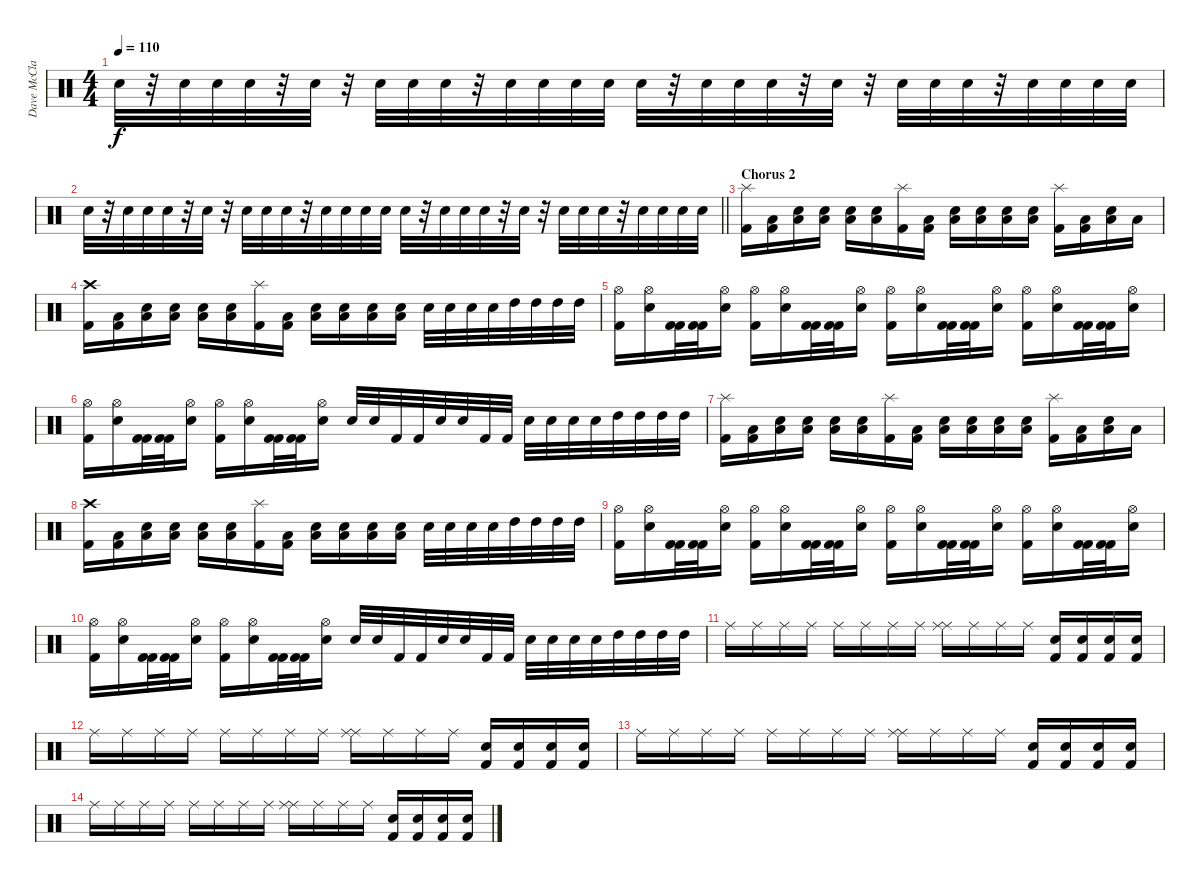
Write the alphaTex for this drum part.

\track ("Dave McClain" "Dave McCla") {instrument percussion}
\staff {score}
\articulation defaults
\ts (4 4)
\tempo 110
\clef neutral
\ks c "Electric Snare (hit)".32{dy f}
r.32 "Electric Snare (hit)".32 "Electric Snare (hit)".32 "Electric Snare (hit)".32 r.32 "Electric Snare (hit)".32 r.32 "Electric Snare (hit)".32 "Electric Snare (hit)".32 "Electric Snare (hit)".32 r.32 "Electric Snare (hit)".32 "Electric Snare (hit)".32 "Electric Snare (hit)".32 "Electric Snare (hit)".32 "Electric Snare (hit)".32 r.32 "Electric Snare (hit)".32 "Electric Snare (hit)".32 "Electric Snare (hit)".32 r.32 "Electric Snare (hit)".32 r.32 "Electric Snare (hit)".32 "Electric Snare (hit)".32 "Electric Snare (hit)".32 r.32 "Electric Snare (hit)".32 "Electric Snare (hit)".32 "Electric Snare (hit)".32 "Electric Snare (hit)".32 |
\barLineRight lightlight "Electric Snare (hit)".32
r.32 "Electric Snare (hit)".32 "Electric Snare (hit)".32 "Electric Snare (hit)".32 r.32 "Electric Snare (hit)".32 r.32 "Electric Snare (hit)".32 "Electric Snare (hit)".32 "Electric Snare (hit)".32 r.32 "Electric Snare (hit)".32 "Electric Snare (hit)".32 "Electric Snare (hit)".32 "Electric Snare (hit)".32 "Electric Snare (hit)".32 r.32 "Electric Snare (hit)".32 "Electric Snare (hit)".32 "Electric Snare (hit)".32 r.32 "Electric Snare (hit)".32 r.32 "Electric Snare (hit)".32 "Electric Snare (hit)".32 "Electric Snare (hit)".32 r.32 "Electric Snare (hit)".32 "Electric Snare (hit)".32 "Electric Snare (hit)".32 "Electric Snare (hit)".32 |
\section ("" "Chorus 2")
("Splash (hit)" "Kick (hit) 2").16 ("Kick (hit) 2" "Low Tom (hit)").16 ("Electric Snare (hit)" "Low Tom (hit)").16 ("Electric Snare (hit)" "Low Tom (hit)").16 ("Electric Snare (hit)" "Low Tom (hit)").16 ("Low Tom (hit)" "Electric Snare (hit)").16 ("Splash (hit)" "Kick (hit) 2").16 ("Kick (hit) 2" "Low Tom (hit)").16 ("Electric Snare (hit)" "Low Tom (hit)").16 ("Electric Snare (hit)" "Low Tom (hit)").16 ("Electric Snare (hit)" "Low Tom (hit)").16 ("Low Tom (hit)" "Electric Snare (hit)").16 ("Kick (hit) 2" "Splash (hit)").16 ("Low Tom (hit)" "Kick (hit) 2").16 ("Low Tom (hit)" "Electric Snare (hit)").16 "Low Tom (hit)".16 |
("Crash high (hit)" "Kick (hit) 2").16 ("Kick (hit) 2" "Low Tom (hit)").16 ("Electric Snare (hit)" "Low Tom (hit)").16 ("Electric Snare (hit)" "Low Tom (hit)").16 ("Electric Snare (hit)" "Low Tom (hit)").16 ("Low Tom (hit)" "Electric Snare (hit)").16 ("Splash (hit)" "Kick (hit) 2").16 ("Kick (hit) 2" "Low Tom (hit)").16 ("Electric Snare (hit)" "Low Tom (hit)").16 ("Electric Snare (hit)" "Low Tom (hit)").16 ("Electric Snare (hit)" "Low Tom (hit)").16 ("Low Tom (hit)" "Electric Snare (hit)").16 "Electric Snare (hit)".32 "Electric Snare (hit)".32 "Electric Snare (hit)".32 "Electric Snare (hit)".32 "High Tom (hit)".32 "High Tom (hit)".32 "High Tom (hit)".32 "High Tom (hit)".32 |
("Kick (hit) 2" "Hi-Hat (open)").16 ("Electric Snare (hit)" "Hi-Hat (open)").16 ("Kick (hit) 2" "Kick (hit) 2").32 ("Kick (hit) 2" "Kick (hit) 2").32 ("Hi-Hat (open)" "Electric Snare (hit)").16 ("Kick (hit) 2" "Hi-Hat (open)").16 ("Hi-Hat (open)" "Electric Snare (hit)").16 ("Kick (hit) 2" "Kick (hit) 2").32 ("Kick (hit) 2" "Kick (hit) 2").32 ("Electric Snare (hit)" "Hi-Hat (open)").16 ("Kick (hit) 2" "Hi-Hat (open)").16 ("Electric Snare (hit)" "Hi-Hat (open)").16 ("Kick (hit) 2" "Kick (hit) 2").32 ("Kick (hit) 2" "Kick (hit) 2").32 ("Hi-Hat (open)" "Electric Snare (hit)").16 ("Kick (hit) 2" "Hi-Hat (open)").16 ("Hi-Hat (open)" "Electric Snare (hit)").16 ("Kick (hit) 2" "Kick (hit) 2").32 ("Kick (hit) 2" "Kick (hit) 2").32 ("Electric Snare (hit)" "Hi-Hat (open)").16 |
("Kick (hit) 2" "Hi-Hat (open)").16 ("Electric Snare (hit)" "Hi-Hat (open)").16 ("Kick (hit) 2" "Kick (hit) 2").32 ("Kick (hit) 2" "Kick (hit) 2").32 ("Hi-Hat (open)" "Electric Snare (hit)").16 ("Kick (hit) 2" "Hi-Hat (open)").16 ("Hi-Hat (open)" "Electric Snare (hit)").16 ("Kick (hit) 2" "Kick (hit) 2").32 ("Kick (hit) 2" "Kick (hit) 2").32 ("Electric Snare (hit)" "Hi-Hat (open)").16 "Electric Snare (hit)".32 "Electric Snare (hit)".32 "Kick (hit) 2".32 "Kick (hit) 2".32 "Electric Snare (hit)".32 "Electric Snare (hit)".32 "Kick (hit) 2".32 "Kick (hit) 2".32 "Electric Snare (hit)".32 "Electric Snare (hit)".32 "Electric Snare (hit)".32 "Electric Snare (hit)".32 "High Tom (hit)".32 "High Tom (hit)".32 "High Tom (hit)".32 "High Tom (hit)".32 |
("Splash (hit)" "Kick (hit) 2").16 ("Kick (hit) 2" "Low Tom (hit)").16 ("Electric Snare (hit)" "Low Tom (hit)").16 ("Electric Snare (hit)" "Low Tom (hit)").16 ("Electric Snare (hit)" "Low Tom (hit)").16 ("Low Tom (hit)" "Electric Snare (hit)").16 ("Splash (hit)" "Kick (hit) 2").16 ("Kick (hit) 2" "Low Tom (hit)").16 ("Electric Snare (hit)" "Low Tom (hit)").16 ("Electric Snare (hit)" "Low Tom (hit)").16 ("Electric Snare (hit)" "Low Tom (hit)").16 ("Low Tom (hit)" "Electric Snare (hit)").16 ("Kick (hit) 2" "Splash (hit)").16 ("Low Tom (hit)" "Kick (hit) 2").16 ("Low Tom (hit)" "Electric Snare (hit)").16 "Low Tom (hit)".16 |
("Crash high (hit)" "Kick (hit) 2").16 ("Kick (hit) 2" "Low Tom (hit)").16 ("Electric Snare (hit)" "Low Tom (hit)").16 ("Electric Snare (hit)" "Low Tom (hit)").16 ("Electric Snare (hit)" "Low Tom (hit)").16 ("Low Tom (hit)" "Electric Snare (hit)").16 ("Splash (hit)" "Kick (hit) 2").16 ("Kick (hit) 2" "Low Tom (hit)").16 ("Electric Snare (hit)" "Low Tom (hit)").16 ("Electric Snare (hit)" "Low Tom (hit)").16 ("Electric Snare (hit)" "Low Tom (hit)").16 ("Low Tom (hit)" "Electric Snare (hit)").16 "Electric Snare (hit)".32 "Electric Snare (hit)".32 "Electric Snare (hit)".32 "Electric Snare (hit)".32 "High Tom (hit)".32 "High Tom (hit)".32 "High Tom (hit)".32 "High Tom (hit)".32 |
("Kick (hit) 2" "Hi-Hat (open)").16 ("Electric Snare (hit)" "Hi-Hat (open)").16 ("Kick (hit) 2" "Kick (hit) 2").32 ("Kick (hit) 2" "Kick (hit) 2").32 ("Hi-Hat (open)" "Electric Snare (hit)").16 ("Kick (hit) 2" "Hi-Hat (open)").16 ("Hi-Hat (open)" "Electric Snare (hit)").16 ("Kick (hit) 2" "Kick (hit) 2").32 ("Kick (hit) 2" "Kick (hit) 2").32 ("Electric Snare (hit)" "Hi-Hat (open)").16 ("Kick (hit) 2" "Hi-Hat (open)").16 ("Electric Snare (hit)" "Hi-Hat (open)").16 ("Kick (hit) 2" "Kick (hit) 2").32 ("Kick (hit) 2" "Kick (hit) 2").32 ("Hi-Hat (open)" "Electric Snare (hit)").16 ("Kick (hit) 2" "Hi-Hat (open)").16 ("Hi-Hat (open)" "Electric Snare (hit)").16 ("Kick (hit) 2" "Kick (hit) 2").32 ("Kick (hit) 2" "Kick (hit) 2").32 ("Electric Snare (hit)" "Hi-Hat (open)").16 |
("Kick (hit) 2" "Hi-Hat (open)").16 ("Electric Snare (hit)" "Hi-Hat (open)").16 ("Kick (hit) 2" "Kick (hit) 2").32 ("Kick (hit) 2" "Kick (hit) 2").32 ("Hi-Hat (open)" "Electric Snare (hit)").16 ("Kick (hit) 2" "Hi-Hat (open)").16 ("Hi-Hat (open)" "Electric Snare (hit)").16 ("Kick (hit) 2" "Kick (hit) 2").32 ("Kick (hit) 2" "Kick (hit) 2").32 ("Electric Snare (hit)" "Hi-Hat (open)").16 "Electric Snare (hit)".32 "Electric Snare (hit)".32 "Kick (hit) 2".32 "Kick (hit) 2".32 "Electric Snare (hit)".32 "Electric Snare (hit)".32 "Kick (hit) 2".32 "Kick (hit) 2".32 "Electric Snare (hit)".32 "Electric Snare (hit)".32 "Electric Snare (hit)".32 "Electric Snare (hit)".32 "High Tom (hit)".32 "High Tom (hit)".32 "High Tom (hit)".32 "High Tom (hit)".32 |
"Ride (middle)".16 "Ride (middle)".16 "Ride (middle)".16 "Ride (middle)".16 "Ride (middle)".16 "Ride (middle)".16 "Ride (middle)".16 "Ride (middle)".16 ("Ride (middle)" "Ride (middle)").16 "Ride (middle)".16 "Ride (middle)".16 "Ride (middle)".16 ("Electric Snare (hit)" "Kick (hit) 2").16 ("Kick (hit) 2" "Electric Snare (hit)").16 ("Kick (hit) 2" "Electric Snare (hit)").16 ("Kick (hit) 2" "Electric Snare (hit)").16 |
"Ride (middle)".16 "Ride (middle)".16 "Ride (middle)".16 "Ride (middle)".16 "Ride (middle)".16 "Ride (middle)".16 "Ride (middle)".16 "Ride (middle)".16 ("Ride (middle)" "Ride (middle)").16 "Ride (middle)".16 "Ride (middle)".16 "Ride (middle)".16 ("Electric Snare (hit)" "Kick (hit) 2").16 ("Kick (hit) 2" "Electric Snare (hit)").16 ("Kick (hit) 2" "Electric Snare (hit)").16 ("Kick (hit) 2" "Electric Snare (hit)").16 |
"Ride (middle)".16 "Ride (middle)".16 "Ride (middle)".16 "Ride (middle)".16 "Ride (middle)".16 "Ride (middle)".16 "Ride (middle)".16 "Ride (middle)".16 ("Ride (middle)" "Ride (middle)").16 "Ride (middle)".16 "Ride (middle)".16 "Ride (middle)".16 ("Electric Snare (hit)" "Kick (hit) 2").16 ("Kick (hit) 2" "Electric Snare (hit)").16 ("Kick (hit) 2" "Electric Snare (hit)").16 ("Kick (hit) 2" "Electric Snare (hit)").16 |
"Ride (middle)".16 "Ride (middle)".16 "Ride (middle)".16 "Ride (middle)".16 "Ride (middle)".16 "Ride (middle)".16 "Ride (middle)".16 "Ride (middle)".16 ("Ride (middle)" "Ride (middle)").16 "Ride (middle)".16 "Ride (middle)".16 "Ride (middle)".16 ("Electric Snare (hit)" "Kick (hit) 2").16 ("Kick (hit) 2" "Electric Snare (hit)").16 ("Kick (hit) 2" "Electric Snare (hit)").16 ("Kick (hit) 2" "Electric Snare (hit)").16
